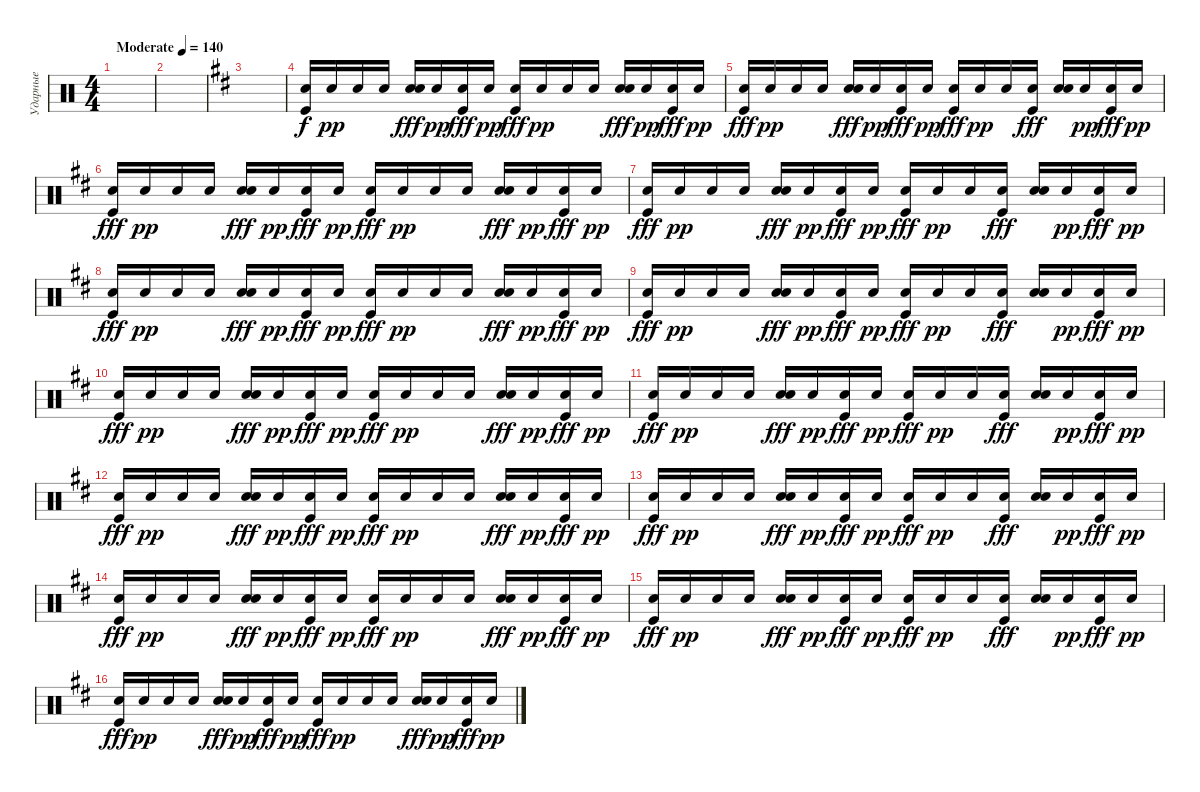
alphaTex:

\track ("Ударные" "Ударные") {instrument percussion}
\staff {score}
\articulation defaults
\ts (4 4)
\tempo (140 "Moderate")
\clef neutral
\ks c
|
|
\ks d
|
("Electric Snare (hit)" "Kick (hit)").16 "Electric Snare (hit)".16{dy pp} "Electric Snare (hit)".16 "Electric Snare (hit)".16 ("Electric Snare (hit)" "Electric Snare (hit)").16{dy fff} "Electric Snare (hit)".16{dy pp} ("Electric Snare (hit)" "Kick (hit)").16{dy fff} "Electric Snare (hit)".16{dy pp} ("Electric Snare (hit)" "Kick (hit)").16{dy fff} "Electric Snare (hit)".16{dy pp} "Electric Snare (hit)".16 "Electric Snare (hit)".16 ("Electric Snare (hit)" "Electric Snare (hit)").16{dy fff} "Electric Snare (hit)".16{dy pp} ("Electric Snare (hit)" "Kick (hit)").16{dy fff} "Electric Snare (hit)".16{dy pp} |
("Electric Snare (hit)" "Kick (hit)").16{dy fff} "Electric Snare (hit)".16{dy pp} "Electric Snare (hit)".16 "Electric Snare (hit)".16 ("Electric Snare (hit)" "Electric Snare (hit)").16{dy fff} "Electric Snare (hit)".16{dy pp} ("Electric Snare (hit)" "Kick (hit)").16{dy fff} "Electric Snare (hit)".16{dy pp} ("Electric Snare (hit)" "Kick (hit)").16{dy fff} "Electric Snare (hit)".16{dy pp} "Electric Snare (hit)".16 ("Electric Snare (hit)" "Kick (hit)").16{dy fff} ("Electric Snare (hit)" "Electric Snare (hit)").16 "Electric Snare (hit)".16{dy pp} ("Electric Snare (hit)" "Kick (hit)").16{dy fff} "Electric Snare (hit)".16{dy pp} |
("Electric Snare (hit)" "Kick (hit)").16{dy fff} "Electric Snare (hit)".16{dy pp} "Electric Snare (hit)".16 "Electric Snare (hit)".16 ("Electric Snare (hit)" "Electric Snare (hit)").16{dy fff} "Electric Snare (hit)".16{dy pp} ("Electric Snare (hit)" "Kick (hit)").16{dy fff} "Electric Snare (hit)".16{dy pp} ("Electric Snare (hit)" "Kick (hit)").16{dy fff} "Electric Snare (hit)".16{dy pp} "Electric Snare (hit)".16 "Electric Snare (hit)".16 ("Electric Snare (hit)" "Electric Snare (hit)").16{dy fff} "Electric Snare (hit)".16{dy pp} ("Electric Snare (hit)" "Kick (hit)").16{dy fff} "Electric Snare (hit)".16{dy pp} |
("Electric Snare (hit)" "Kick (hit)").16{dy fff} "Electric Snare (hit)".16{dy pp} "Electric Snare (hit)".16 "Electric Snare (hit)".16 ("Electric Snare (hit)" "Electric Snare (hit)").16{dy fff} "Electric Snare (hit)".16{dy pp} ("Electric Snare (hit)" "Kick (hit)").16{dy fff} "Electric Snare (hit)".16{dy pp} ("Electric Snare (hit)" "Kick (hit)").16{dy fff} "Electric Snare (hit)".16{dy pp} "Electric Snare (hit)".16 ("Electric Snare (hit)" "Kick (hit)").16{dy fff} ("Electric Snare (hit)" "Electric Snare (hit)").16 "Electric Snare (hit)".16{dy pp} ("Electric Snare (hit)" "Kick (hit)").16{dy fff} "Electric Snare (hit)".16{dy pp} |
("Electric Snare (hit)" "Kick (hit)").16{dy fff} "Electric Snare (hit)".16{dy pp} "Electric Snare (hit)".16 "Electric Snare (hit)".16 ("Electric Snare (hit)" "Electric Snare (hit)").16{dy fff} "Electric Snare (hit)".16{dy pp} ("Electric Snare (hit)" "Kick (hit)").16{dy fff} "Electric Snare (hit)".16{dy pp} ("Electric Snare (hit)" "Kick (hit)").16{dy fff} "Electric Snare (hit)".16{dy pp} "Electric Snare (hit)".16 "Electric Snare (hit)".16 ("Electric Snare (hit)" "Electric Snare (hit)").16{dy fff} "Electric Snare (hit)".16{dy pp} ("Electric Snare (hit)" "Kick (hit)").16{dy fff} "Electric Snare (hit)".16{dy pp} |
("Electric Snare (hit)" "Kick (hit)").16{dy fff} "Electric Snare (hit)".16{dy pp} "Electric Snare (hit)".16 "Electric Snare (hit)".16 ("Electric Snare (hit)" "Electric Snare (hit)").16{dy fff} "Electric Snare (hit)".16{dy pp} ("Electric Snare (hit)" "Kick (hit)").16{dy fff} "Electric Snare (hit)".16{dy pp} ("Electric Snare (hit)" "Kick (hit)").16{dy fff} "Electric Snare (hit)".16{dy pp} "Electric Snare (hit)".16 ("Electric Snare (hit)" "Kick (hit)").16{dy fff} ("Electric Snare (hit)" "Electric Snare (hit)").16 "Electric Snare (hit)".16{dy pp} ("Electric Snare (hit)" "Kick (hit)").16{dy fff} "Electric Snare (hit)".16{dy pp} |
("Electric Snare (hit)" "Kick (hit)").16{dy fff} "Electric Snare (hit)".16{dy pp} "Electric Snare (hit)".16 "Electric Snare (hit)".16 ("Electric Snare (hit)" "Electric Snare (hit)").16{dy fff} "Electric Snare (hit)".16{dy pp} ("Electric Snare (hit)" "Kick (hit)").16{dy fff} "Electric Snare (hit)".16{dy pp} ("Electric Snare (hit)" "Kick (hit)").16{dy fff} "Electric Snare (hit)".16{dy pp} "Electric Snare (hit)".16 "Electric Snare (hit)".16 ("Electric Snare (hit)" "Electric Snare (hit)").16{dy fff} "Electric Snare (hit)".16{dy pp} ("Electric Snare (hit)" "Kick (hit)").16{dy fff} "Electric Snare (hit)".16{dy pp} |
("Electric Snare (hit)" "Kick (hit)").16{dy fff} "Electric Snare (hit)".16{dy pp} "Electric Snare (hit)".16 "Electric Snare (hit)".16 ("Electric Snare (hit)" "Electric Snare (hit)").16{dy fff} "Electric Snare (hit)".16{dy pp} ("Electric Snare (hit)" "Kick (hit)").16{dy fff} "Electric Snare (hit)".16{dy pp} ("Electric Snare (hit)" "Kick (hit)").16{dy fff} "Electric Snare (hit)".16{dy pp} "Electric Snare (hit)".16 ("Electric Snare (hit)" "Kick (hit)").16{dy fff} ("Electric Snare (hit)" "Electric Snare (hit)").16 "Electric Snare (hit)".16{dy pp} ("Electric Snare (hit)" "Kick (hit)").16{dy fff} "Electric Snare (hit)".16{dy pp} |
("Electric Snare (hit)" "Kick (hit)").16{dy fff} "Electric Snare (hit)".16{dy pp} "Electric Snare (hit)".16 "Electric Snare (hit)".16 ("Electric Snare (hit)" "Electric Snare (hit)").16{dy fff} "Electric Snare (hit)".16{dy pp} ("Electric Snare (hit)" "Kick (hit)").16{dy fff} "Electric Snare (hit)".16{dy pp} ("Electric Snare (hit)" "Kick (hit)").16{dy fff} "Electric Snare (hit)".16{dy pp} "Electric Snare (hit)".16 "Electric Snare (hit)".16 ("Electric Snare (hit)" "Electric Snare (hit)").16{dy fff} "Electric Snare (hit)".16{dy pp} ("Electric Snare (hit)" "Kick (hit)").16{dy fff} "Electric Snare (hit)".16{dy pp} |
("Electric Snare (hit)" "Kick (hit)").16{dy fff} "Electric Snare (hit)".16{dy pp} "Electric Snare (hit)".16 "Electric Snare (hit)".16 ("Electric Snare (hit)" "Electric Snare (hit)").16{dy fff} "Electric Snare (hit)".16{dy pp} ("Electric Snare (hit)" "Kick (hit)").16{dy fff} "Electric Snare (hit)".16{dy pp} ("Electric Snare (hit)" "Kick (hit)").16{dy fff} "Electric Snare (hit)".16{dy pp} "Electric Snare (hit)".16 ("Electric Snare (hit)" "Kick (hit)").16{dy fff} ("Electric Snare (hit)" "Electric Snare (hit)").16 "Electric Snare (hit)".16{dy pp} ("Electric Snare (hit)" "Kick (hit)").16{dy fff} "Electric Snare (hit)".16{dy pp} |
("Electric Snare (hit)" "Kick (hit)").16{dy fff} "Electric Snare (hit)".16{dy pp} "Electric Snare (hit)".16 "Electric Snare (hit)".16 ("Electric Snare (hit)" "Electric Snare (hit)").16{dy fff} "Electric Snare (hit)".16{dy pp} ("Electric Snare (hit)" "Kick (hit)").16{dy fff} "Electric Snare (hit)".16{dy pp} ("Electric Snare (hit)" "Kick (hit)").16{dy fff} "Electric Snare (hit)".16{dy pp} "Electric Snare (hit)".16 "Electric Snare (hit)".16 ("Electric Snare (hit)" "Electric Snare (hit)").16{dy fff} "Electric Snare (hit)".16{dy pp} ("Electric Snare (hit)" "Kick (hit)").16{dy fff} "Electric Snare (hit)".16{dy pp} |
("Electric Snare (hit)" "Kick (hit)").16{dy fff} "Electric Snare (hit)".16{dy pp} "Electric Snare (hit)".16 "Electric Snare (hit)".16 ("Electric Snare (hit)" "Electric Snare (hit)").16{dy fff} "Electric Snare (hit)".16{dy pp} ("Electric Snare (hit)" "Kick (hit)").16{dy fff} "Electric Snare (hit)".16{dy pp} ("Electric Snare (hit)" "Kick (hit)").16{dy fff} "Electric Snare (hit)".16{dy pp} "Electric Snare (hit)".16 ("Electric Snare (hit)" "Kick (hit)").16{dy fff} ("Electric Snare (hit)" "Electric Snare (hit)").16 "Electric Snare (hit)".16{dy pp} ("Electric Snare (hit)" "Kick (hit)").16{dy fff} "Electric Snare (hit)".16{dy pp} |
("Electric Snare (hit)" "Kick (hit)").16{dy fff} "Electric Snare (hit)".16{dy pp} "Electric Snare (hit)".16 "Electric Snare (hit)".16 ("Electric Snare (hit)" "Electric Snare (hit)").16{dy fff} "Electric Snare (hit)".16{dy pp} ("Electric Snare (hit)" "Kick (hit)").16{dy fff} "Electric Snare (hit)".16{dy pp} ("Electric Snare (hit)" "Kick (hit)").16{dy fff} "Electric Snare (hit)".16{dy pp} "Electric Snare (hit)".16 "Electric Snare (hit)".16 ("Electric Snare (hit)" "Electric Snare (hit)").16{dy fff} "Electric Snare (hit)".16{dy pp} ("Electric Snare (hit)" "Kick (hit)").16{dy fff} "Electric Snare (hit)".16{dy pp}
